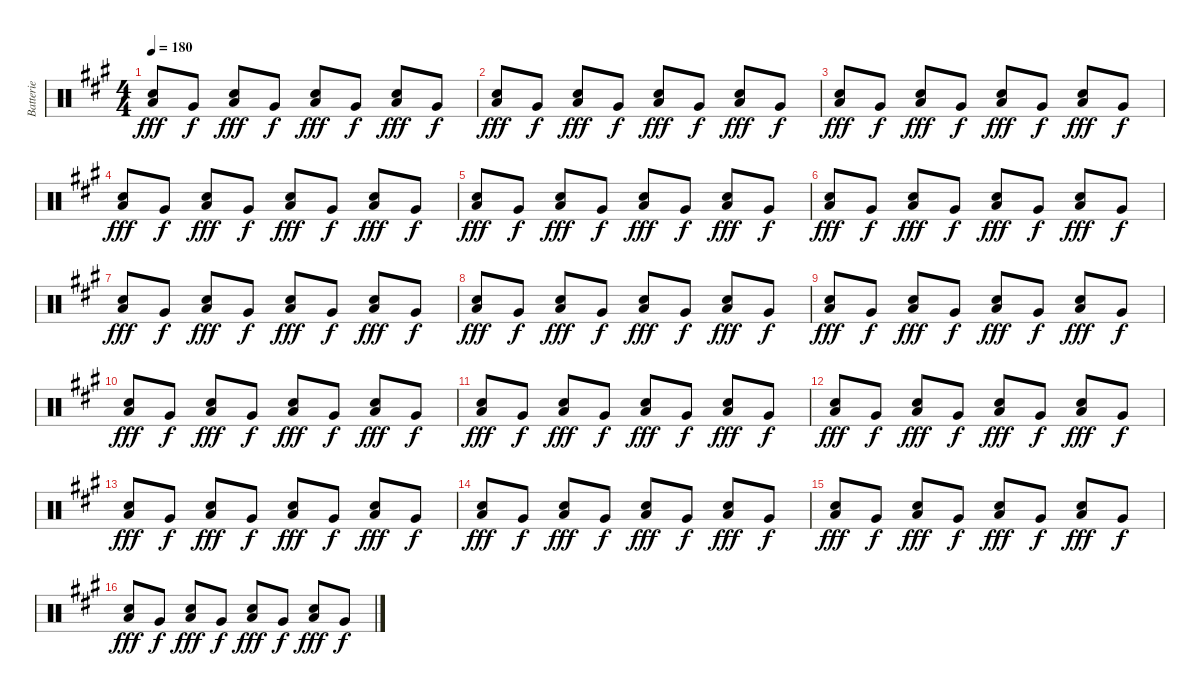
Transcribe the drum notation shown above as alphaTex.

\track ("Batterie" "Batterie") {instrument percussion}
\staff {score}
\articulation defaults
\ts (4 4)
\tempo 180
\clef neutral
\ks a
("Electric Snare (hit)" "Low Floor Tom (hit)").8{dy fff} "Very Low Tom (hit)".8{dy f} ("Electric Snare (hit)" "Low Floor Tom (hit)").8{dy fff} "Very Low Tom (hit)".8{dy f} ("Electric Snare (hit)" "Low Floor Tom (hit)").8{dy fff} "Very Low Tom (hit)".8{dy f} ("Electric Snare (hit)" "Low Floor Tom (hit)").8{dy fff} "Very Low Tom (hit)".8{dy f} |
("Electric Snare (hit)" "Low Floor Tom (hit)").8{dy fff} "Very Low Tom (hit)".8{dy f} ("Electric Snare (hit)" "Low Floor Tom (hit)").8{dy fff} "Very Low Tom (hit)".8{dy f} ("Electric Snare (hit)" "Low Floor Tom (hit)").8{dy fff} "Very Low Tom (hit)".8{dy f} ("Electric Snare (hit)" "Low Floor Tom (hit)").8{dy fff} "Very Low Tom (hit)".8{dy f} |
("Electric Snare (hit)" "Low Floor Tom (hit)").8{dy fff} "Very Low Tom (hit)".8{dy f} ("Electric Snare (hit)" "Low Floor Tom (hit)").8{dy fff} "Very Low Tom (hit)".8{dy f} ("Electric Snare (hit)" "Low Floor Tom (hit)").8{dy fff} "Very Low Tom (hit)".8{dy f} ("Electric Snare (hit)" "Low Floor Tom (hit)").8{dy fff} "Very Low Tom (hit)".8{dy f} |
("Electric Snare (hit)" "Low Floor Tom (hit)").8{dy fff} "Very Low Tom (hit)".8{dy f} ("Electric Snare (hit)" "Low Floor Tom (hit)").8{dy fff} "Very Low Tom (hit)".8{dy f} ("Electric Snare (hit)" "Low Floor Tom (hit)").8{dy fff} "Very Low Tom (hit)".8{dy f} ("Electric Snare (hit)" "Low Floor Tom (hit)").8{dy fff} "Very Low Tom (hit)".8{dy f} |
("Electric Snare (hit)" "Low Floor Tom (hit)").8{dy fff} "Very Low Tom (hit)".8{dy f} ("Electric Snare (hit)" "Low Floor Tom (hit)").8{dy fff} "Very Low Tom (hit)".8{dy f} ("Electric Snare (hit)" "Low Floor Tom (hit)").8{dy fff} "Very Low Tom (hit)".8{dy f} ("Electric Snare (hit)" "Low Floor Tom (hit)").8{dy fff} "Very Low Tom (hit)".8{dy f} |
("Electric Snare (hit)" "Low Floor Tom (hit)").8{dy fff} "Very Low Tom (hit)".8{dy f} ("Electric Snare (hit)" "Low Floor Tom (hit)").8{dy fff} "Very Low Tom (hit)".8{dy f} ("Electric Snare (hit)" "Low Floor Tom (hit)").8{dy fff} "Very Low Tom (hit)".8{dy f} ("Electric Snare (hit)" "Low Floor Tom (hit)").8{dy fff} "Very Low Tom (hit)".8{dy f} |
("Electric Snare (hit)" "Low Floor Tom (hit)").8{dy fff} "Very Low Tom (hit)".8{dy f} ("Electric Snare (hit)" "Low Floor Tom (hit)").8{dy fff} "Very Low Tom (hit)".8{dy f} ("Electric Snare (hit)" "Low Floor Tom (hit)").8{dy fff} "Very Low Tom (hit)".8{dy f} ("Electric Snare (hit)" "Low Floor Tom (hit)").8{dy fff} "Very Low Tom (hit)".8{dy f} |
("Electric Snare (hit)" "Low Floor Tom (hit)").8{dy fff} "Very Low Tom (hit)".8{dy f} ("Electric Snare (hit)" "Low Floor Tom (hit)").8{dy fff} "Very Low Tom (hit)".8{dy f} ("Electric Snare (hit)" "Low Floor Tom (hit)").8{dy fff} "Very Low Tom (hit)".8{dy f} ("Electric Snare (hit)" "Low Floor Tom (hit)").8{dy fff} "Very Low Tom (hit)".8{dy f} |
("Electric Snare (hit)" "Low Floor Tom (hit)").8{dy fff} "Very Low Tom (hit)".8{dy f} ("Electric Snare (hit)" "Low Floor Tom (hit)").8{dy fff} "Very Low Tom (hit)".8{dy f} ("Electric Snare (hit)" "Low Floor Tom (hit)").8{dy fff} "Very Low Tom (hit)".8{dy f} ("Electric Snare (hit)" "Low Floor Tom (hit)").8{dy fff} "Very Low Tom (hit)".8{dy f} |
("Electric Snare (hit)" "Low Floor Tom (hit)").8{dy fff} "Very Low Tom (hit)".8{dy f} ("Electric Snare (hit)" "Low Floor Tom (hit)").8{dy fff} "Very Low Tom (hit)".8{dy f} ("Electric Snare (hit)" "Low Floor Tom (hit)").8{dy fff} "Very Low Tom (hit)".8{dy f} ("Electric Snare (hit)" "Low Floor Tom (hit)").8{dy fff} "Very Low Tom (hit)".8{dy f} |
("Electric Snare (hit)" "Low Floor Tom (hit)").8{dy fff} "Very Low Tom (hit)".8{dy f} ("Electric Snare (hit)" "Low Floor Tom (hit)").8{dy fff} "Very Low Tom (hit)".8{dy f} ("Electric Snare (hit)" "Low Floor Tom (hit)").8{dy fff} "Very Low Tom (hit)".8{dy f} ("Electric Snare (hit)" "Low Floor Tom (hit)").8{dy fff} "Very Low Tom (hit)".8{dy f} |
("Electric Snare (hit)" "Low Floor Tom (hit)").8{dy fff} "Very Low Tom (hit)".8{dy f} ("Electric Snare (hit)" "Low Floor Tom (hit)").8{dy fff} "Very Low Tom (hit)".8{dy f} ("Electric Snare (hit)" "Low Floor Tom (hit)").8{dy fff} "Very Low Tom (hit)".8{dy f} ("Electric Snare (hit)" "Low Floor Tom (hit)").8{dy fff} "Very Low Tom (hit)".8{dy f} |
("Electric Snare (hit)" "Low Floor Tom (hit)").8{dy fff} "Very Low Tom (hit)".8{dy f} ("Electric Snare (hit)" "Low Floor Tom (hit)").8{dy fff} "Very Low Tom (hit)".8{dy f} ("Electric Snare (hit)" "Low Floor Tom (hit)").8{dy fff} "Very Low Tom (hit)".8{dy f} ("Electric Snare (hit)" "Low Floor Tom (hit)").8{dy fff} "Very Low Tom (hit)".8{dy f} |
("Electric Snare (hit)" "Low Floor Tom (hit)").8{dy fff} "Very Low Tom (hit)".8{dy f} ("Electric Snare (hit)" "Low Floor Tom (hit)").8{dy fff} "Very Low Tom (hit)".8{dy f} ("Electric Snare (hit)" "Low Floor Tom (hit)").8{dy fff} "Very Low Tom (hit)".8{dy f} ("Electric Snare (hit)" "Low Floor Tom (hit)").8{dy fff} "Very Low Tom (hit)".8{dy f} |
("Electric Snare (hit)" "Low Floor Tom (hit)").8{dy fff} "Very Low Tom (hit)".8{dy f} ("Electric Snare (hit)" "Low Floor Tom (hit)").8{dy fff} "Very Low Tom (hit)".8{dy f} ("Electric Snare (hit)" "Low Floor Tom (hit)").8{dy fff} "Very Low Tom (hit)".8{dy f} ("Electric Snare (hit)" "Low Floor Tom (hit)").8{dy fff} "Very Low Tom (hit)".8{dy f} |
("Electric Snare (hit)" "Low Floor Tom (hit)").8{dy fff} "Very Low Tom (hit)".8{dy f} ("Electric Snare (hit)" "Low Floor Tom (hit)").8{dy fff} "Very Low Tom (hit)".8{dy f} ("Electric Snare (hit)" "Low Floor Tom (hit)").8{dy fff} "Very Low Tom (hit)".8{dy f} ("Electric Snare (hit)" "Low Floor Tom (hit)").8{dy fff} "Very Low Tom (hit)".8{dy f}
